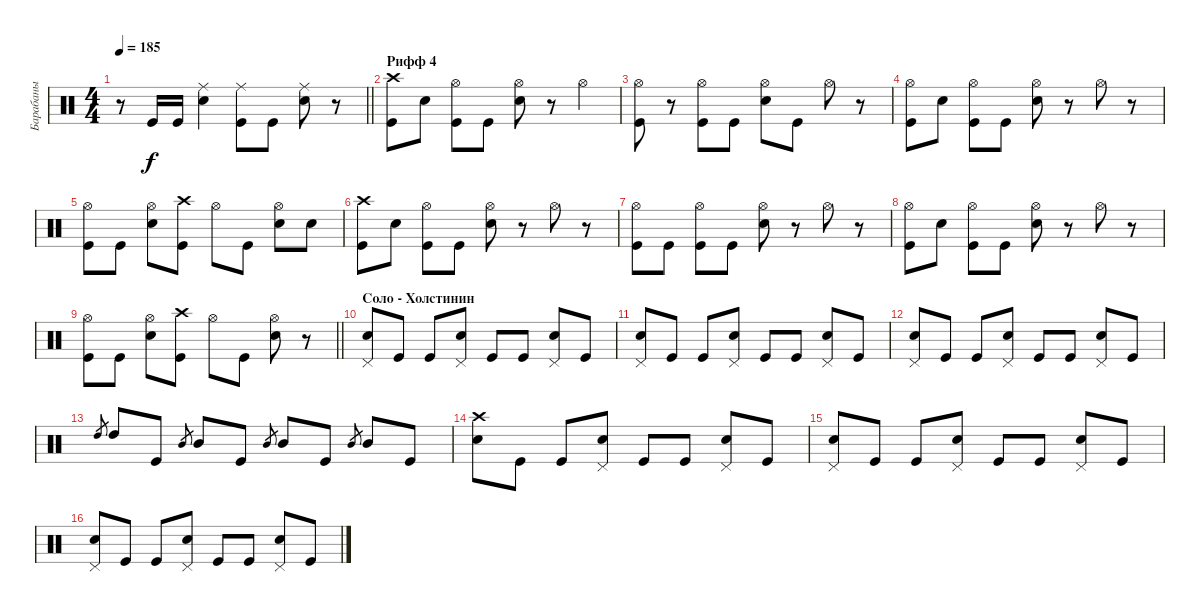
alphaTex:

\track ("Барабаны" "Барабаны") {instrument percussion}
\staff {score}
\articulation defaults
\ts (4 4)
\tempo 185
\clef neutral
\barLineRight lightlight
\ks c
r.8{dy f} "Kick (hit)".16 "Kick (hit)".16 ("Snare (hit) 2" "Ride (middle)").4 ("Kick (hit)" "Ride (middle)").8 "Kick (hit)".8 ("Snare (hit) 2" "Ride (middle)").8 r.8 |
\section ("" "Рифф 4")
("Kick (hit)" "Crash high (hit)").8 "Snare (hit) 2".8 ("Kick (hit)" "Hi-Hat (open)").8 "Kick (hit)".8 ("Snare (hit) 2" "Hi-Hat (open)").8 r.8 "Hi-Hat (open)".4 |
("Kick (hit)" "Hi-Hat (open)").8 r.8 ("Kick (hit)" "Hi-Hat (open)").8 "Kick (hit)".8 ("Snare (hit) 2" "Hi-Hat (open)").8 "Kick (hit)".8 "Hi-Hat (open)".8 r.8 |
("Kick (hit)" "Hi-Hat (open)").8 "Snare (hit) 2".8 ("Kick (hit)" "Hi-Hat (open)").8 "Kick (hit)".8 ("Snare (hit) 2" "Hi-Hat (open)").8 r.8 "Hi-Hat (open)".8 r.8 |
("Kick (hit)" "Hi-Hat (open)").8 "Kick (hit)".8 ("Snare (hit) 2" "Hi-Hat (open)").8 ("Kick (hit)" "Crash high (hit)").8 "Hi-Hat (open)".8 "Kick (hit)".8 ("Snare (hit) 2" "Hi-Hat (open)").8 "Snare (hit) 2".8 |
("Kick (hit)" "Crash high (hit)").8 "Snare (hit) 2".8 ("Kick (hit)" "Hi-Hat (open)").8 "Kick (hit)".8 ("Snare (hit) 2" "Hi-Hat (open)").8 r.8 "Hi-Hat (open)".8 r.8 |
("Kick (hit)" "Hi-Hat (open)").8 "Kick (hit)".8 ("Kick (hit)" "Hi-Hat (open)").8 "Kick (hit)".8 ("Snare (hit) 2" "Hi-Hat (open)").8 r.8 "Hi-Hat (open)".8 r.8 |
("Kick (hit)" "Hi-Hat (open)").8 "Snare (hit) 2".8 ("Kick (hit)" "Hi-Hat (open)").8 "Kick (hit)".8 ("Snare (hit) 2" "Hi-Hat (open)").8 r.8 "Hi-Hat (open)".8 r.8 |
\barLineRight lightlight
("Kick (hit)" "Hi-Hat (open)").8 "Kick (hit)".8 ("Snare (hit) 2" "Hi-Hat (open)").8 ("Kick (hit)" "Crash high (hit)").8 "Hi-Hat (open)".8 "Kick (hit)".8 ("Snare (hit) 2" "Hi-Hat (open)").8 r.8 |
\section ("" "Соло - Холстинин")
("Snare (hit) 2" "Pedal Hi-Hat (hit)").8 "Kick (hit)".8 "Kick (hit)".8 ("Snare (hit) 2" "Pedal Hi-Hat (hit)").8 "Kick (hit)".8 "Kick (hit)".8 ("Snare (hit) 2" "Pedal Hi-Hat (hit)").8 "Kick (hit)".8 |
("Snare (hit) 2" "Pedal Hi-Hat (hit)").8 "Kick (hit)".8 "Kick (hit)".8 ("Snare (hit) 2" "Pedal Hi-Hat (hit)").8 "Kick (hit)".8 "Kick (hit)".8 ("Snare (hit) 2" "Pedal Hi-Hat (hit)").8 "Kick (hit)".8 |
("Snare (hit) 2" "Pedal Hi-Hat (hit)").8 "Kick (hit)".8 "Kick (hit)".8 ("Snare (hit) 2" "Pedal Hi-Hat (hit)").8 "Kick (hit)".8 "Kick (hit)".8 ("Snare (hit) 2" "Pedal Hi-Hat (hit)").8 "Kick (hit)".8 |
"High Tom (hit)".8{gr} "High Tom (hit)".8 "Kick (hit)".8 "Mid Tom (hit)".8{gr} "Mid Tom (hit)".8 "Kick (hit)".8 "Mid Tom (hit)".8{gr} "Mid Tom (hit)".8 "Kick (hit)".8 "Mid Tom (hit)".8{gr} "Mid Tom (hit)".8 "Kick (hit)".8 |
("Snare (hit) 2" "Crash high (hit)").8 "Kick (hit)".8 "Kick (hit)".8 ("Snare (hit) 2" "Pedal Hi-Hat (hit)").8 "Kick (hit)".8 "Kick (hit)".8 ("Snare (hit) 2" "Pedal Hi-Hat (hit)").8 "Kick (hit)".8 |
("Snare (hit) 2" "Pedal Hi-Hat (hit)").8 "Kick (hit)".8 "Kick (hit)".8 ("Snare (hit) 2" "Pedal Hi-Hat (hit)").8 "Kick (hit)".8 "Kick (hit)".8 ("Snare (hit) 2" "Pedal Hi-Hat (hit)").8 "Kick (hit)".8 |
("Snare (hit) 2" "Pedal Hi-Hat (hit)").8 "Kick (hit)".8 "Kick (hit)".8 ("Snare (hit) 2" "Pedal Hi-Hat (hit)").8 "Kick (hit)".8 "Kick (hit)".8 ("Snare (hit) 2" "Pedal Hi-Hat (hit)").8 "Kick (hit)".8
